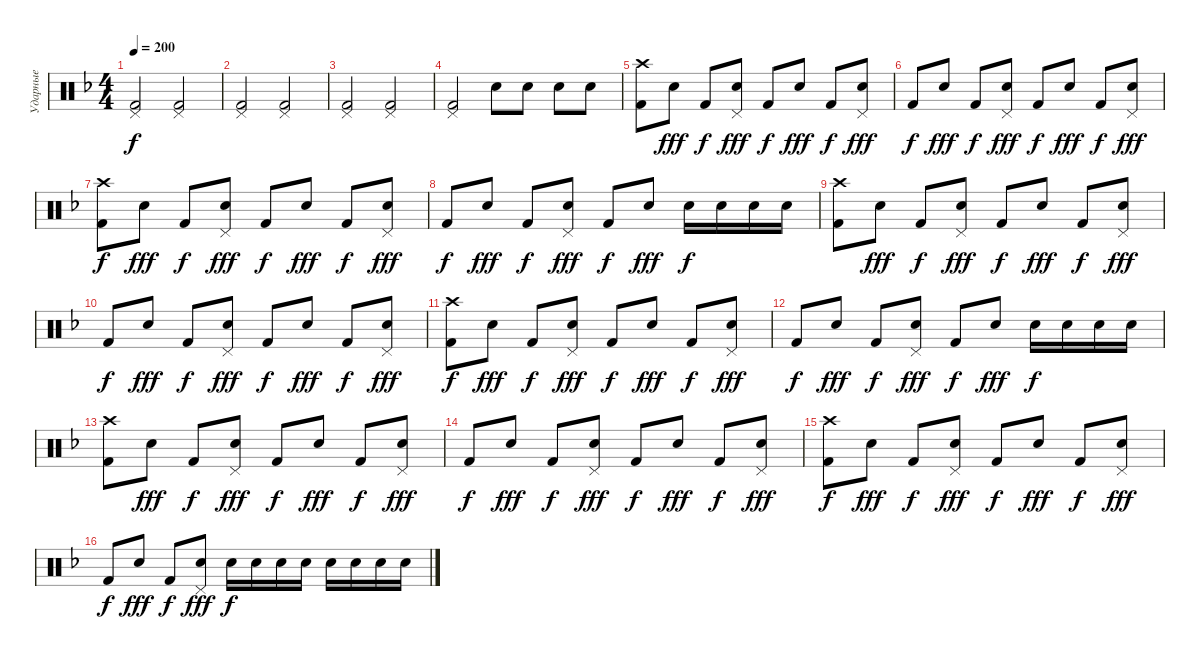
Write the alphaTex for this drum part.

\track ("Ударные" "Ударные") {instrument percussion}
\staff {score}
\articulation defaults
\ts (4 4)
\tempo 200
\clef neutral
\ks dminor
("Kick (hit) 2" "Pedal Hi-Hat (hit)").2{dy f} ("Kick (hit) 2" "Pedal Hi-Hat (hit)").2 |
("Kick (hit) 2" "Pedal Hi-Hat (hit)").2 ("Kick (hit) 2" "Pedal Hi-Hat (hit)").2 |
("Kick (hit) 2" "Pedal Hi-Hat (hit)").2 ("Kick (hit) 2" "Pedal Hi-Hat (hit)").2 |
("Kick (hit) 2" "Pedal Hi-Hat (hit)").2 "Electric Snare (hit)".8 "Electric Snare (hit)".8 "Electric Snare (hit)".8 "Electric Snare (hit)".8 |
("Kick (hit) 2" "Crash high (hit)").8 "Electric Snare (hit)".8{dy fff} "Kick (hit) 2".8{dy f} ("Electric Snare (hit)" "Pedal Hi-Hat (hit)").8{dy fff} "Kick (hit) 2".8{dy f} "Electric Snare (hit)".8{dy fff} "Kick (hit) 2".8{dy f} ("Electric Snare (hit)" "Pedal Hi-Hat (hit)").8{dy fff} |
"Kick (hit) 2".8{dy f} "Electric Snare (hit)".8{dy fff} "Kick (hit) 2".8{dy f} ("Electric Snare (hit)" "Pedal Hi-Hat (hit)").8{dy fff} "Kick (hit) 2".8{dy f} "Electric Snare (hit)".8{dy fff} "Kick (hit) 2".8{dy f} ("Electric Snare (hit)" "Pedal Hi-Hat (hit)").8{dy fff} |
("Kick (hit) 2" "Crash high (hit)").8{dy f} "Electric Snare (hit)".8{dy fff} "Kick (hit) 2".8{dy f} ("Electric Snare (hit)" "Pedal Hi-Hat (hit)").8{dy fff} "Kick (hit) 2".8{dy f} "Electric Snare (hit)".8{dy fff} "Kick (hit) 2".8{dy f} ("Electric Snare (hit)" "Pedal Hi-Hat (hit)").8{dy fff} |
"Kick (hit) 2".8{dy f} "Electric Snare (hit)".8{dy fff} "Kick (hit) 2".8{dy f} ("Electric Snare (hit)" "Pedal Hi-Hat (hit)").8{dy fff} "Kick (hit) 2".8{dy f} "Electric Snare (hit)".8{dy fff} "Electric Snare (hit)".16{dy f} "Electric Snare (hit)".16 "Electric Snare (hit)".16 "Electric Snare (hit)".16 |
("Kick (hit) 2" "Crash high (hit)").8 "Electric Snare (hit)".8{dy fff} "Kick (hit) 2".8{dy f} ("Electric Snare (hit)" "Pedal Hi-Hat (hit)").8{dy fff} "Kick (hit) 2".8{dy f} "Electric Snare (hit)".8{dy fff} "Kick (hit) 2".8{dy f} ("Electric Snare (hit)" "Pedal Hi-Hat (hit)").8{dy fff} |
"Kick (hit) 2".8{dy f} "Electric Snare (hit)".8{dy fff} "Kick (hit) 2".8{dy f} ("Electric Snare (hit)" "Pedal Hi-Hat (hit)").8{dy fff} "Kick (hit) 2".8{dy f} "Electric Snare (hit)".8{dy fff} "Kick (hit) 2".8{dy f} ("Electric Snare (hit)" "Pedal Hi-Hat (hit)").8{dy fff} |
("Kick (hit) 2" "Crash high (hit)").8{dy f} "Electric Snare (hit)".8{dy fff} "Kick (hit) 2".8{dy f} ("Electric Snare (hit)" "Pedal Hi-Hat (hit)").8{dy fff} "Kick (hit) 2".8{dy f} "Electric Snare (hit)".8{dy fff} "Kick (hit) 2".8{dy f} ("Electric Snare (hit)" "Pedal Hi-Hat (hit)").8{dy fff} |
"Kick (hit) 2".8{dy f} "Electric Snare (hit)".8{dy fff} "Kick (hit) 2".8{dy f} ("Electric Snare (hit)" "Pedal Hi-Hat (hit)").8{dy fff} "Kick (hit) 2".8{dy f} "Electric Snare (hit)".8{dy fff} "Electric Snare (hit)".16{dy f} "Electric Snare (hit)".16 "Electric Snare (hit)".16 "Electric Snare (hit)".16 |
("Kick (hit) 2" "Crash high (hit)").8 "Electric Snare (hit)".8{dy fff} "Kick (hit) 2".8{dy f} ("Electric Snare (hit)" "Pedal Hi-Hat (hit)").8{dy fff} "Kick (hit) 2".8{dy f} "Electric Snare (hit)".8{dy fff} "Kick (hit) 2".8{dy f} ("Electric Snare (hit)" "Pedal Hi-Hat (hit)").8{dy fff} |
"Kick (hit) 2".8{dy f} "Electric Snare (hit)".8{dy fff} "Kick (hit) 2".8{dy f} ("Electric Snare (hit)" "Pedal Hi-Hat (hit)").8{dy fff} "Kick (hit) 2".8{dy f} "Electric Snare (hit)".8{dy fff} "Kick (hit) 2".8{dy f} ("Electric Snare (hit)" "Pedal Hi-Hat (hit)").8{dy fff} |
("Kick (hit) 2" "Crash high (hit)").8{dy f} "Electric Snare (hit)".8{dy fff} "Kick (hit) 2".8{dy f} ("Electric Snare (hit)" "Pedal Hi-Hat (hit)").8{dy fff} "Kick (hit) 2".8{dy f} "Electric Snare (hit)".8{dy fff} "Kick (hit) 2".8{dy f} ("Electric Snare (hit)" "Pedal Hi-Hat (hit)").8{dy fff} |
"Kick (hit) 2".8{dy f} "Electric Snare (hit)".8{dy fff} "Kick (hit) 2".8{dy f} ("Electric Snare (hit)" "Pedal Hi-Hat (hit)").8{dy fff} "Electric Snare (hit)".16{dy f} "Electric Snare (hit)".16 "Electric Snare (hit)".16 "Electric Snare (hit)".16 "Electric Snare (hit)".16 "Electric Snare (hit)".16 "Electric Snare (hit)".16 "Electric Snare (hit)".16
